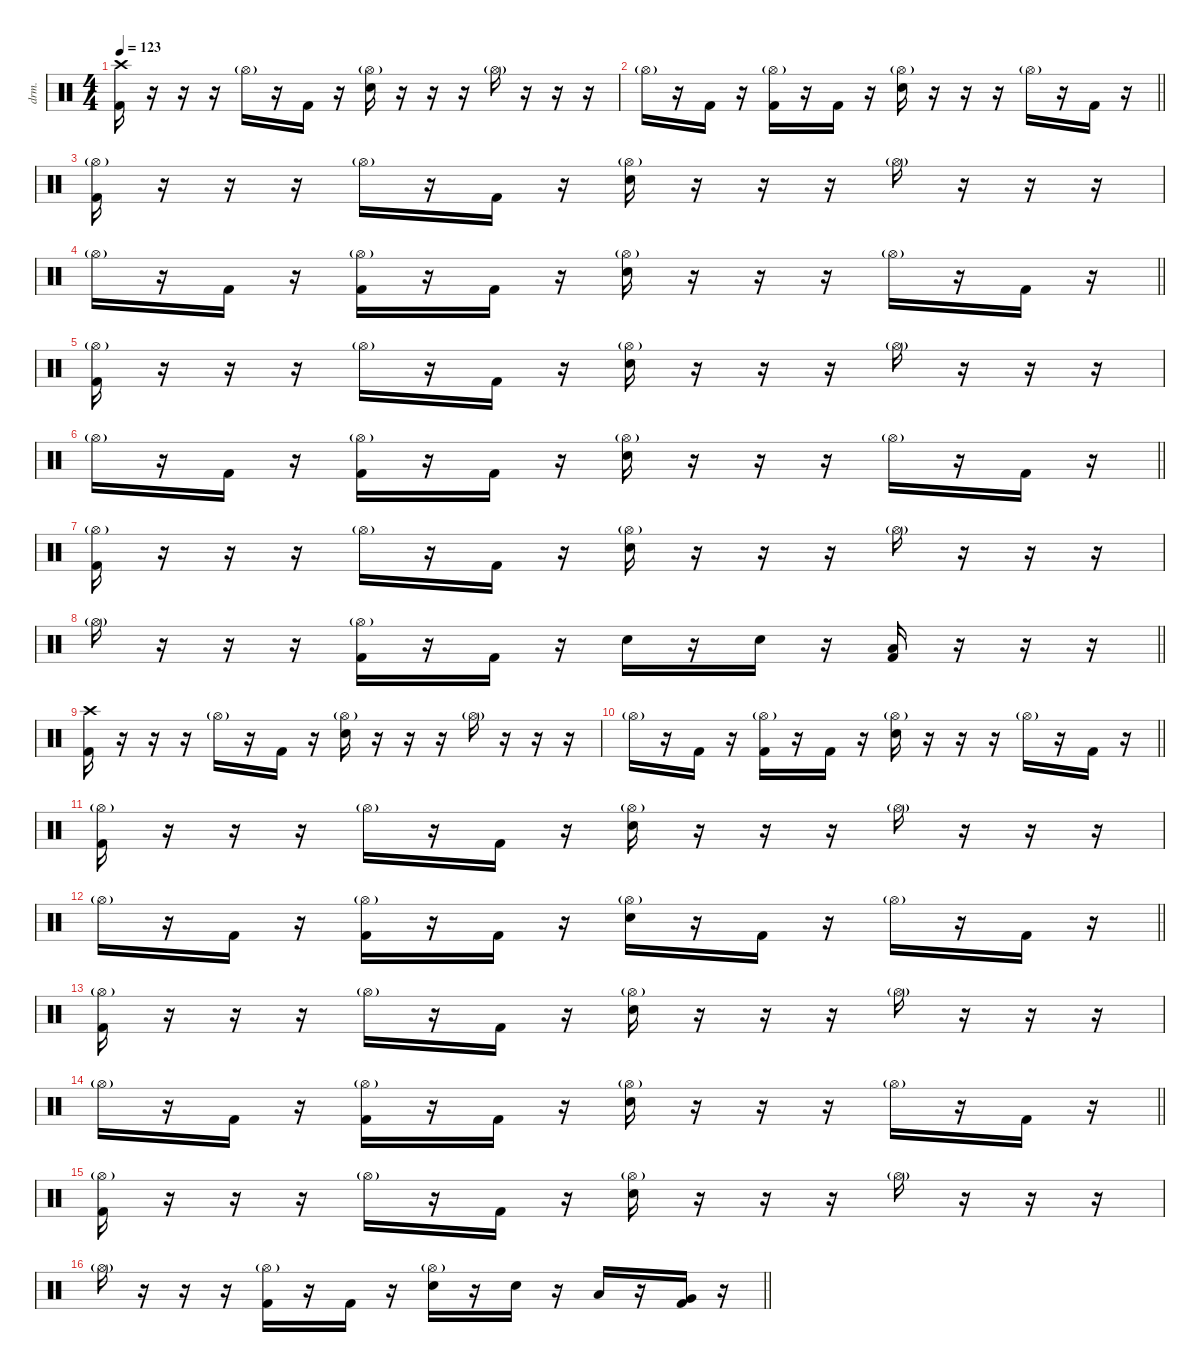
\defaultSystemsLayout 4
\hideDynamics
\bracketExtendMode nobrackets
\otherSystemsTrackNameOrientation horizontal
\track ("Percussion" "drm.") {instrument percussion}
\staff {score}
\articulation defaults
\ts (4 4)
\section ("" "")
\tempo 123
\clef neutral
\ks c
("Kick (hit) 2" "Crash high (hit)").16{dy f beam Down} r.16{beam Down} r.16{beam Down} r.16{beam Down} "Hi-Hat (open)"{g}.16{dy mf beam Down} r.16{beam Down} "Kick (hit) 2".16{dy f beam Down} r.16{beam Down} ("Snare (hit) 2" "Hi-Hat (open)"{g}).16{beam Down} r.16{beam Down} r.16{beam Down} r.16{beam Down} "Hi-Hat (open)"{g}.16{dy mf beam Down} r.16{beam Down} r.16{beam Down} r.16{beam Down} |
\barLineRight lightlight "Hi-Hat (open)"{g}.16{beam Down}
r.16{beam Down} "Kick (hit) 2".16{dy f beam Down} r.16{beam Down} ("Kick (hit) 2" "Hi-Hat (open)"{g}).16{beam Down} r.16{beam Down} "Kick (hit) 2".16{beam Down} r.16{beam Down} ("Snare (hit) 2" "Hi-Hat (open)"{g}).16{beam Down} r.16{beam Down} r.16{beam Down} r.16{beam Down} "Hi-Hat (open)"{g}.16{dy mf beam Down} r.16{beam Down} "Kick (hit) 2".16{dy f beam Down} r.16{beam Down} |
("Kick (hit) 2" "Hi-Hat (open)"{g}).16{beam Down} r.16{beam Down} r.16{beam Down} r.16{beam Down} "Hi-Hat (open)"{g}.16{dy mf beam Down} r.16{beam Down} "Kick (hit) 2".16{dy f beam Down} r.16{beam Down} ("Snare (hit) 2" "Hi-Hat (open)"{g}).16{beam Down} r.16{beam Down} r.16{beam Down} r.16{beam Down} "Hi-Hat (open)"{g}.16{dy mf beam Down} r.16{beam Down} r.16{beam Down} r.16{beam Down} |
\barLineRight lightlight "Hi-Hat (open)"{g}.16{beam Down}
r.16{beam Down} "Kick (hit) 2".16{dy f beam Down} r.16{beam Down} ("Kick (hit) 2" "Hi-Hat (open)"{g}).16{beam Down} r.16{beam Down} "Kick (hit) 2".16{beam Down} r.16{beam Down} ("Snare (hit) 2" "Hi-Hat (open)"{g}).16{beam Down} r.16{beam Down} r.16{beam Down} r.16{beam Down} "Hi-Hat (open)"{g}.16{dy mf beam Down} r.16{beam Down} "Kick (hit) 2".16{dy f beam Down} r.16{beam Down} |
("Kick (hit) 2" "Hi-Hat (open)"{g}).16{beam Down} r.16{beam Down} r.16{beam Down} r.16{beam Down} "Hi-Hat (open)"{g}.16{dy mf beam Down} r.16{beam Down} "Kick (hit) 2".16{dy f beam Down} r.16{beam Down} ("Snare (hit) 2" "Hi-Hat (open)"{g}).16{beam Down} r.16{beam Down} r.16{beam Down} r.16{beam Down} "Hi-Hat (open)"{g}.16{dy mf beam Down} r.16{beam Down} r.16{beam Down} r.16{beam Down} |
\barLineRight lightlight "Hi-Hat (open)"{g}.16{beam Down}
r.16{beam Down} "Kick (hit) 2".16{dy f beam Down} r.16{beam Down} ("Kick (hit) 2" "Hi-Hat (open)"{g}).16{beam Down} r.16{beam Down} "Kick (hit) 2".16{beam Down} r.16{beam Down} ("Snare (hit) 2" "Hi-Hat (open)"{g}).16{beam Down} r.16{beam Down} r.16{beam Down} r.16{beam Down} "Hi-Hat (open)"{g}.16{dy mf beam Down} r.16{beam Down} "Kick (hit) 2".16{dy f beam Down} r.16{beam Down} |
("Kick (hit) 2" "Hi-Hat (open)"{g}).16{beam Down} r.16{beam Down} r.16{beam Down} r.16{beam Down} "Hi-Hat (open)"{g}.16{dy mf beam Down} r.16{beam Down} "Kick (hit) 2".16{dy f beam Down} r.16{beam Down} ("Snare (hit) 2" "Hi-Hat (open)"{g}).16{beam Down} r.16{beam Down} r.16{beam Down} r.16{beam Down} "Hi-Hat (open)"{g}.16{dy mf beam Down} r.16{beam Down} r.16{beam Down} r.16{beam Down} |
\barLineRight lightlight "Hi-Hat (open)"{g}.16{beam Down}
r.16{beam Down} r.16{beam Down} r.16{beam Down} ("Kick (hit) 2" "Hi-Hat (open)"{g}).16{dy f beam Down} r.16{beam Down} "Kick (hit) 2".16{beam Down} r.16{beam Down} "Snare (hit) 2".16{beam Down} r.16{beam Down} "Snare (hit) 2".16{beam Down} r.16{beam Down} ("Kick (hit) 2" "Low Tom (hit)").16{beam Up} r.16{beam Up} r.16{beam Up} r.16{beam Up} |
("Kick (hit) 2" "Crash high (hit)").16{beam Down} r.16{beam Down} r.16{beam Down} r.16{beam Down} "Hi-Hat (open)"{g}.16{dy mf beam Down} r.16{beam Down} "Kick (hit) 2".16{dy f beam Down} r.16{beam Down} ("Snare (hit) 2" "Hi-Hat (open)"{g}).16{beam Down} r.16{beam Down} r.16{beam Down} r.16{beam Down} "Hi-Hat (open)"{g}.16{dy mf beam Down} r.16{beam Down} r.16{beam Down} r.16{beam Down} |
\barLineRight lightlight "Hi-Hat (open)"{g}.16{beam Down}
r.16{beam Down} "Kick (hit) 2".16{dy f beam Down} r.16{beam Down} ("Kick (hit) 2" "Hi-Hat (open)"{g}).16{beam Down} r.16{beam Down} "Kick (hit) 2".16{beam Down} r.16{beam Down} ("Snare (hit) 2" "Hi-Hat (open)"{g}).16{beam Down} r.16{beam Down} r.16{beam Down} r.16{beam Down} "Hi-Hat (open)"{g}.16{dy mf beam Down} r.16{beam Down} "Kick (hit) 2".16{dy f beam Down} r.16{beam Down} |
("Kick (hit) 2" "Hi-Hat (open)"{g}).16{beam Down} r.16{beam Down} r.16{beam Down} r.16{beam Down} "Hi-Hat (open)"{g}.16{dy mf beam Down} r.16{beam Down} "Kick (hit) 2".16{dy f beam Down} r.16{beam Down} ("Snare (hit) 2" "Hi-Hat (open)"{g}).16{beam Down} r.16{beam Down} r.16{beam Down} r.16{beam Down} "Hi-Hat (open)"{g}.16{dy mf beam Down} r.16{beam Down} r.16{beam Down} r.16{beam Down} |
\barLineRight lightlight "Hi-Hat (open)"{g}.16{beam Down}
r.16{beam Down} "Kick (hit) 2".16{dy f beam Down} r.16{beam Down} ("Kick (hit) 2" "Hi-Hat (open)"{g}).16{beam Down} r.16{beam Down} "Kick (hit) 2".16{beam Down} r.16{beam Down} ("Snare (hit) 2" "Hi-Hat (open)"{g}).16{beam Down} r.16{beam Down} "Kick (hit) 2".16{beam Down} r.16{beam Down} "Hi-Hat (open)"{g}.16{dy mf beam Down} r.16{beam Down} "Kick (hit) 2".16{dy f beam Down} r.16{beam Down} |
("Kick (hit) 2" "Hi-Hat (open)"{g}).16{beam Down} r.16{beam Down} r.16{beam Down} r.16{beam Down} "Hi-Hat (open)"{g}.16{dy mf beam Down} r.16{beam Down} "Kick (hit) 2".16{dy f beam Down} r.16{beam Down} ("Snare (hit) 2" "Hi-Hat (open)"{g}).16{beam Down} r.16{beam Down} r.16{beam Down} r.16{beam Down} "Hi-Hat (open)"{g}.16{dy mf beam Down} r.16{beam Down} r.16{beam Down} r.16{beam Down} |
\barLineRight lightlight "Hi-Hat (open)"{g}.16{beam Down}
r.16{beam Down} "Kick (hit) 2".16{dy f beam Down} r.16{beam Down} ("Kick (hit) 2" "Hi-Hat (open)"{g}).16{beam Down} r.16{beam Down} "Kick (hit) 2".16{beam Down} r.16{beam Down} ("Snare (hit) 2" "Hi-Hat (open)"{g}).16{beam Down} r.16{beam Down} r.16{beam Down} r.16{beam Down} "Hi-Hat (open)"{g}.16{dy mf beam Down} r.16{beam Down} "Kick (hit) 2".16{dy f beam Down} r.16{beam Down} |
("Kick (hit) 2" "Hi-Hat (open)"{g}).16{beam Down} r.16{beam Down} r.16{beam Down} r.16{beam Down} "Hi-Hat (open)"{g}.16{dy mf beam Down} r.16{beam Down} "Kick (hit) 2".16{dy f beam Down} r.16{beam Down} ("Snare (hit) 2" "Hi-Hat (open)"{g}).16{beam Down} r.16{beam Down} r.16{beam Down} r.16{beam Down} "Hi-Hat (open)"{g}.16{dy mf beam Down} r.16{beam Down} r.16{beam Down} r.16{beam Down} |
\barLineRight lightlight "Hi-Hat (open)"{g}.16{beam Down}
r.16{beam Down} r.16{beam Down} r.16{beam Down} ("Kick (hit) 2" "Hi-Hat (open)"{g}).16{dy f beam Down} r.16{beam Down} "Kick (hit) 2".16{beam Down} r.16{beam Down} ("Snare (hit) 2" "Hi-Hat (open)"{g}).16{beam Down} r.16{beam Down} "Snare (hit) 2".16{beam Down} r.16{beam Down} "Low Tom (hit)".16{beam Up} r.16{beam Up} ("Kick (hit) 2" "Very Low Tom (hit)").16{beam Up} r.16{beam Up}
